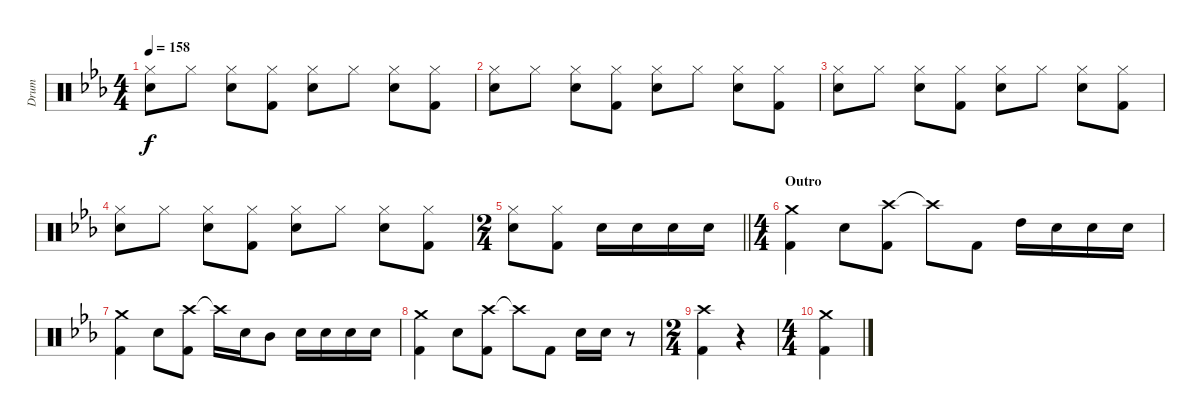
\track ("Drum" "Drum") {instrument percussion}
\staff {score}
\articulation defaults
\ts (4 4)
\tempo 158
\clef neutral
\ks eb
("Hi-Hat (closed)" "Electric Snare (hit)").8{dy f} "Hi-Hat (closed)".8 ("Hi-Hat (closed)" "Electric Snare (hit)").8 ("Hi-Hat (closed)" "Kick (hit) 2").8 ("Hi-Hat (closed)" "Electric Snare (hit)").8 "Hi-Hat (closed)".8 ("Hi-Hat (closed)" "Electric Snare (hit)").8 ("Hi-Hat (closed)" "Kick (hit) 2").8 |
("Hi-Hat (closed)" "Electric Snare (hit)").8 "Hi-Hat (closed)".8 ("Hi-Hat (closed)" "Electric Snare (hit)").8 ("Hi-Hat (closed)" "Kick (hit) 2").8 ("Hi-Hat (closed)" "Electric Snare (hit)").8 "Hi-Hat (closed)".8 ("Hi-Hat (closed)" "Electric Snare (hit)").8 ("Hi-Hat (closed)" "Kick (hit) 2").8 |
("Hi-Hat (closed)" "Electric Snare (hit)").8 "Hi-Hat (closed)".8 ("Hi-Hat (closed)" "Electric Snare (hit)").8 ("Hi-Hat (closed)" "Kick (hit) 2").8 ("Hi-Hat (closed)" "Electric Snare (hit)").8 "Hi-Hat (closed)".8 ("Hi-Hat (closed)" "Electric Snare (hit)").8 ("Hi-Hat (closed)" "Kick (hit) 2").8 |
("Hi-Hat (closed)" "Electric Snare (hit)").8 "Hi-Hat (closed)".8 ("Hi-Hat (closed)" "Electric Snare (hit)").8 ("Hi-Hat (closed)" "Kick (hit) 2").8 ("Hi-Hat (closed)" "Electric Snare (hit)").8 "Hi-Hat (closed)".8 ("Hi-Hat (closed)" "Electric Snare (hit)").8 ("Hi-Hat (closed)" "Kick (hit) 2").8 |
\ts (2 4)
\barLineRight lightlight
("Hi-Hat (closed)" "Electric Snare (hit)").8 ("Hi-Hat (closed)" "Kick (hit) 2").8 "Electric Snare (hit)".16 "Electric Snare (hit)".16 "Electric Snare (hit)".16 "Electric Snare (hit)".16 |
\ts (4 4)
\section ("" "Outro")
("Crash medium (hit)" "Kick (hit) 2").4 "Electric Snare (hit)".8 ("Crash high (hit)" "Kick (hit) 2").8 "Crash high (hit)"{t}.8 "Kick (hit) 2".8 "High Tom (hit)".16 "Electric Snare (hit)".16 "Electric Snare (hit)".16 "Electric Snare (hit)".16 |
("Crash medium (hit)" "Kick (hit) 2").4 "Electric Snare (hit)".8 ("Crash high (hit)" "Kick (hit) 2").8 "Crash high (hit)"{t}.16 "Electric Snare (hit)".16 "Mid Tom (hit)".8 "Electric Snare (hit)".16 "Electric Snare (hit)".16 "Electric Snare (hit)".16 "Electric Snare (hit)".16 |
("Crash medium (hit)" "Kick (hit) 2").4 "Electric Snare (hit)".8 ("Crash high (hit)" "Kick (hit) 2").8 "Crash high (hit)"{t}.8 "Kick (hit) 2".8 "Electric Snare (hit)".16 "Electric Snare (hit)".16 r.8 |
\ts (2 4)
("Crash high (hit)" "Kick (hit) 2").4 r.4 |
\ts (4 4)
("Crash medium (hit)" "Kick (hit) 2").4
